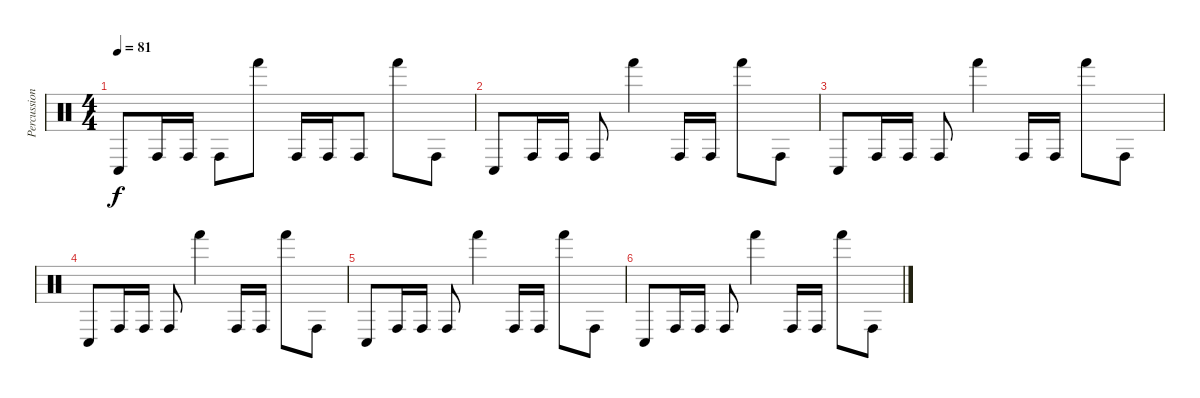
\track ("Percussion" "Percussion") {instrument percussion}
\staff {score}
\articulation defaults
\ts (4 4)
\tempo 81
\clef neutral
\ks c "Conga low (hit)".8{dy f} "Conga high (hit)".16 "Conga high (hit)".16 "Conga high (hit)".8 "Hand (hit)".8 "Conga high (hit)".16 "Conga high (hit)".16 "Conga high (hit)".8 "Hand (hit)".8 "Conga high (hit)".8
|
"Conga low (hit)".8 "Conga high (hit)".16 "Conga high (hit)".16 "Conga high (hit)".8 "Hand (hit)".4 "Conga high (hit)".16 "Conga high (hit)".16 "Hand (hit)".8 "Conga high (hit)".8 |
"Conga low (hit)".8 "Conga high (hit)".16 "Conga high (hit)".16 "Conga high (hit)".8 "Hand (hit)".4 "Conga high (hit)".16 "Conga high (hit)".16 "Hand (hit)".8 "Conga high (hit)".8 |
"Conga low (hit)".8 "Conga high (hit)".16 "Conga high (hit)".16 "Conga high (hit)".8 "Hand (hit)".4 "Conga high (hit)".16 "Conga high (hit)".16 "Hand (hit)".8 "Conga high (hit)".8 |
"Conga low (hit)".8 "Conga high (hit)".16 "Conga high (hit)".16 "Conga high (hit)".8 "Hand (hit)".4 "Conga high (hit)".16 "Conga high (hit)".16 "Hand (hit)".8 "Conga high (hit)".8 |
"Conga low (hit)".8 "Conga high (hit)".16 "Conga high (hit)".16 "Conga high (hit)".8 "Hand (hit)".4 "Conga high (hit)".16 "Conga high (hit)".16 "Hand (hit)".8 "Conga high (hit)".8
